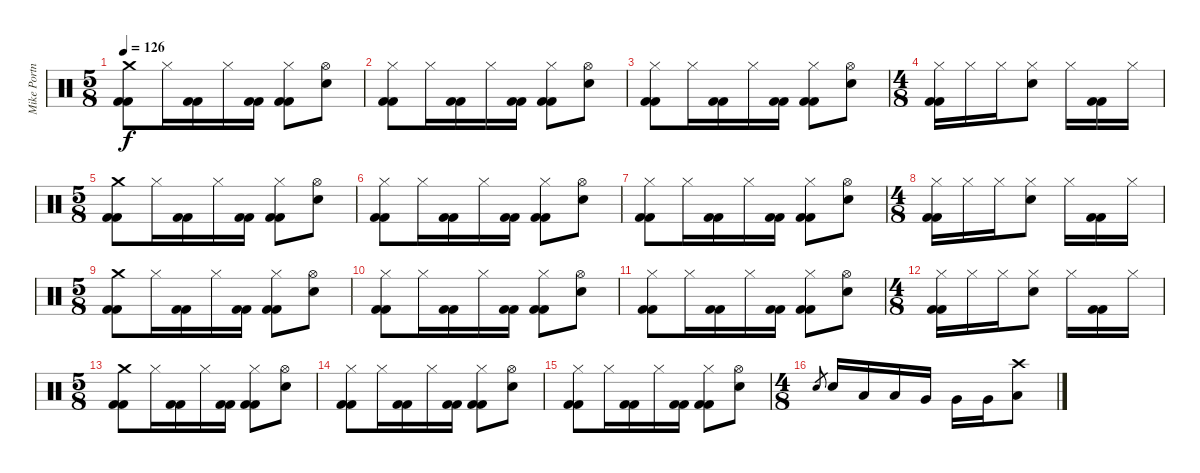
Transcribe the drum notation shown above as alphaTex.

\track ("Mike Portnoy" "Mike Portn") {instrument percussion}
\staff {score}
\articulation defaults
\ts (5 8)
\tempo 126
\clef neutral
\ks c
("Crash medium (hit)" "Kick (hit) 2" "Kick (hit) 2").8{dy f} "Hi-Hat (closed)".16 ("Kick (hit) 2" "Kick (hit) 2").16 "Hi-Hat (closed)".16 ("Kick (hit) 2" "Kick (hit) 2").16 ("Hi-Hat (closed)" "Kick (hit) 2" "Kick (hit) 2").8 ("Hi-Hat (open)" "Electric Snare (hit)").8 |
("Hi-Hat (closed)" "Kick (hit) 2" "Kick (hit) 2").8 "Hi-Hat (closed)".16 ("Kick (hit) 2" "Kick (hit) 2").16 "Hi-Hat (closed)".16 ("Kick (hit) 2" "Kick (hit) 2").16 ("Hi-Hat (closed)" "Kick (hit) 2" "Kick (hit) 2").8 ("Hi-Hat (open)" "Electric Snare (hit)").8 |
("Hi-Hat (closed)" "Kick (hit) 2" "Kick (hit) 2").8 "Hi-Hat (closed)".16 ("Kick (hit) 2" "Kick (hit) 2").16 "Hi-Hat (closed)".16 ("Kick (hit) 2" "Kick (hit) 2").16 ("Hi-Hat (closed)" "Kick (hit) 2" "Kick (hit) 2").8 ("Hi-Hat (open)" "Electric Snare (hit)").8 |
\ts (4 8)
("Hi-Hat (closed)" "Kick (hit) 2" "Kick (hit) 2").16 "Hi-Hat (closed)".16 "Hi-Hat (closed)".16 ("Hi-Hat (closed)" "Electric Snare (hit)").8 "Hi-Hat (closed)".16 ("Kick (hit) 2" "Kick (hit) 2").16 "Hi-Hat (closed)".16 |
\ts (5 8)
("Crash medium (hit)" "Kick (hit) 2" "Kick (hit) 2").8 "Hi-Hat (closed)".16 ("Kick (hit) 2" "Kick (hit) 2").16 "Hi-Hat (closed)".16 ("Kick (hit) 2" "Kick (hit) 2").16 ("Hi-Hat (closed)" "Kick (hit) 2" "Kick (hit) 2").8 ("Hi-Hat (open)" "Electric Snare (hit)").8 |
("Hi-Hat (closed)" "Kick (hit) 2" "Kick (hit) 2").8 "Hi-Hat (closed)".16 ("Kick (hit) 2" "Kick (hit) 2").16 "Hi-Hat (closed)".16 ("Kick (hit) 2" "Kick (hit) 2").16 ("Hi-Hat (closed)" "Kick (hit) 2" "Kick (hit) 2").8 ("Hi-Hat (open)" "Electric Snare (hit)").8 |
("Hi-Hat (closed)" "Kick (hit) 2" "Kick (hit) 2").8 "Hi-Hat (closed)".16 ("Kick (hit) 2" "Kick (hit) 2").16 "Hi-Hat (closed)".16 ("Kick (hit) 2" "Kick (hit) 2").16 ("Hi-Hat (closed)" "Kick (hit) 2" "Kick (hit) 2").8 ("Hi-Hat (open)" "Electric Snare (hit)").8 |
\ts (4 8)
("Hi-Hat (closed)" "Kick (hit) 2" "Kick (hit) 2").16 "Hi-Hat (closed)".16 "Hi-Hat (closed)".16 ("Hi-Hat (closed)" "Electric Snare (hit)").8 "Hi-Hat (closed)".16 ("Kick (hit) 2" "Kick (hit) 2").16 "Hi-Hat (closed)".16 |
\ts (5 8)
("Crash medium (hit)" "Kick (hit) 2" "Kick (hit) 2").8 "Hi-Hat (closed)".16 ("Kick (hit) 2" "Kick (hit) 2").16 "Hi-Hat (closed)".16 ("Kick (hit) 2" "Kick (hit) 2").16 ("Hi-Hat (closed)" "Kick (hit) 2" "Kick (hit) 2").8 ("Hi-Hat (open)" "Electric Snare (hit)").8 |
("Hi-Hat (closed)" "Kick (hit) 2" "Kick (hit) 2").8 "Hi-Hat (closed)".16 ("Kick (hit) 2" "Kick (hit) 2").16 "Hi-Hat (closed)".16 ("Kick (hit) 2" "Kick (hit) 2").16 ("Hi-Hat (closed)" "Kick (hit) 2" "Kick (hit) 2").8 ("Hi-Hat (open)" "Electric Snare (hit)").8 |
("Hi-Hat (closed)" "Kick (hit) 2" "Kick (hit) 2").8 "Hi-Hat (closed)".16 ("Kick (hit) 2" "Kick (hit) 2").16 "Hi-Hat (closed)".16 ("Kick (hit) 2" "Kick (hit) 2").16 ("Hi-Hat (closed)" "Kick (hit) 2" "Kick (hit) 2").8 ("Hi-Hat (open)" "Electric Snare (hit)").8 |
\ts (4 8)
("Hi-Hat (closed)" "Kick (hit) 2" "Kick (hit) 2").16 "Hi-Hat (closed)".16 "Hi-Hat (closed)".16 ("Hi-Hat (closed)" "Electric Snare (hit)").8 "Hi-Hat (closed)".16 ("Kick (hit) 2" "Kick (hit) 2").16 "Hi-Hat (closed)".16 |
\ts (5 8)
("Crash medium (hit)" "Kick (hit) 2" "Kick (hit) 2").8 "Hi-Hat (closed)".16 ("Kick (hit) 2" "Kick (hit) 2").16 "Hi-Hat (closed)".16 ("Kick (hit) 2" "Kick (hit) 2").16 ("Hi-Hat (closed)" "Kick (hit) 2" "Kick (hit) 2").8 ("Hi-Hat (open)" "Electric Snare (hit)").8 |
("Hi-Hat (closed)" "Kick (hit) 2" "Kick (hit) 2").8 "Hi-Hat (closed)".16 ("Kick (hit) 2" "Kick (hit) 2").16 "Hi-Hat (closed)".16 ("Kick (hit) 2" "Kick (hit) 2").16 ("Hi-Hat (closed)" "Kick (hit) 2" "Kick (hit) 2").8 ("Hi-Hat (open)" "Electric Snare (hit)").8 |
("Hi-Hat (closed)" "Kick (hit) 2" "Kick (hit) 2").8 "Hi-Hat (closed)".16 ("Kick (hit) 2" "Kick (hit) 2").16 "Hi-Hat (closed)".16 ("Kick (hit) 2" "Kick (hit) 2").16 ("Hi-Hat (closed)" "Kick (hit) 2" "Kick (hit) 2").8 ("Hi-Hat (open)" "Electric Snare (hit)").8 |
\ts (4 8)
"Electric Snare (hit)".8{gr} "Electric Snare (hit)".16 "Low Tom (hit)".16 "Low Tom (hit)".16 "Very Low Tom (hit)".16 "Very Low Tom (hit)".16 "Very Low Tom (hit)".16 ("Crash high (hit)" "Low Floor Tom (hit)").8
